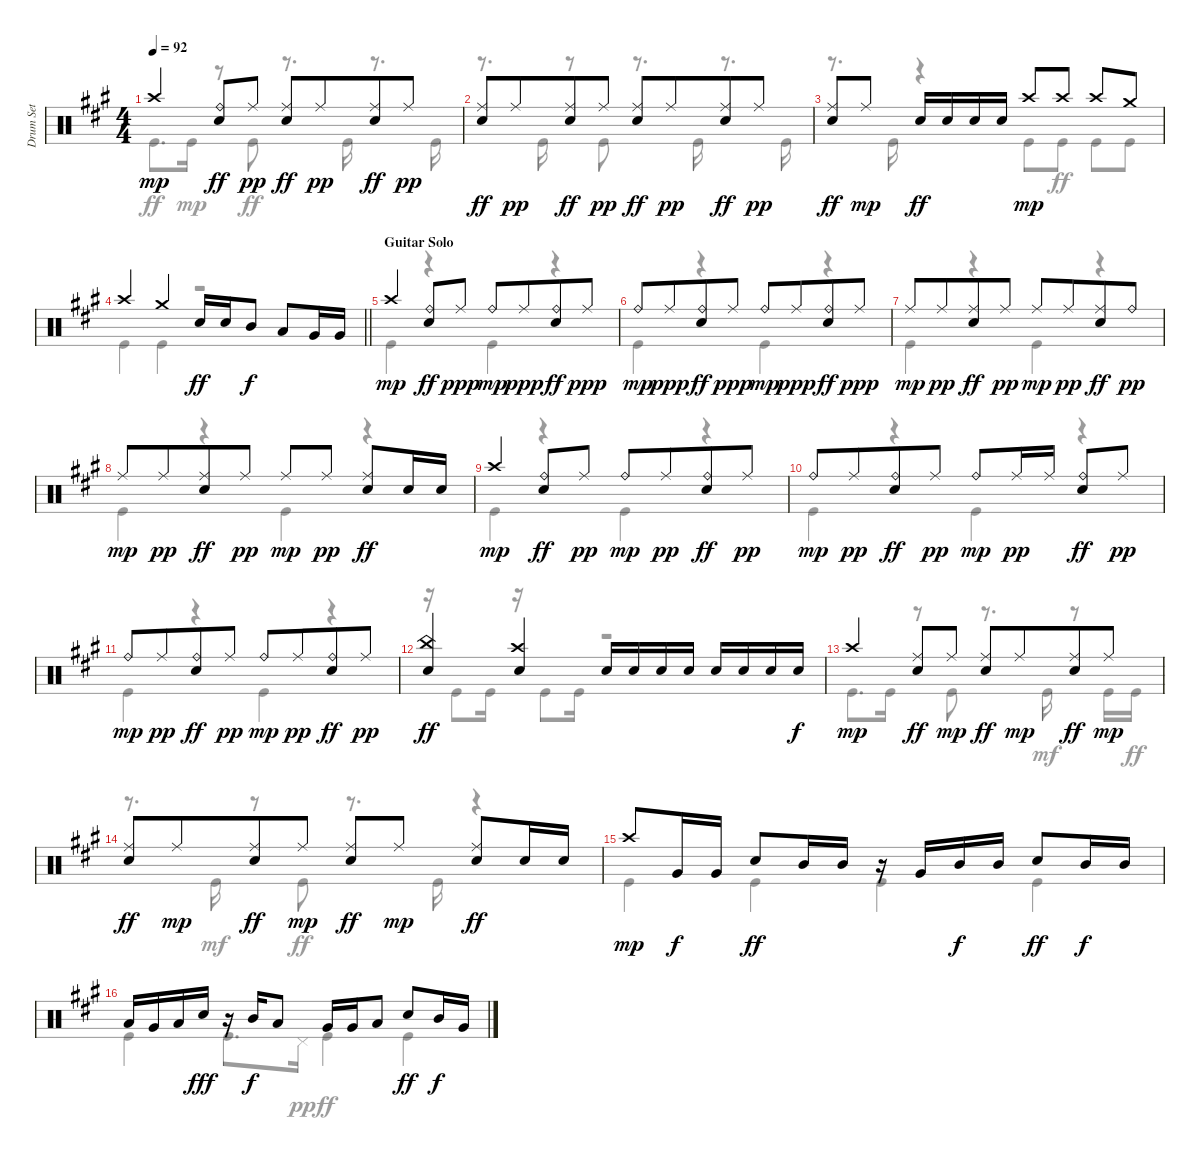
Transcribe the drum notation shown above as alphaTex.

\track ("Drum Set" "Drum Set") {instrument percussion}
\staff {score}
\articulation defaults
\voice
\ts (4 4)
\tempo 92
\clef neutral
\ks f#minor "Crash high (hit)".4{dy mp}
("Ride (bell)" "Electric Snare (hit)").8{dy ff} "Ride (middle)".8{dy pp} ("Ride (middle)" "Electric Snare (hit)").8{dy ff} "Ride (middle)".8{dy pp beam merge} ("Ride (middle)" "Electric Snare (hit)").8{dy ff} "Ride (middle)".8{dy pp} |
("Ride (middle)" "Electric Snare (hit)").8{dy ff} "Ride (middle)".8{dy pp beam merge} ("Ride (middle)" "Electric Snare (hit)").8{dy ff} "Ride (middle)".8{dy pp} ("Ride (middle)" "Electric Snare (hit)").8{dy ff} "Ride (middle)".8{dy pp beam merge} ("Ride (middle)" "Electric Snare (hit)").8{dy ff} "Ride (middle)".8{dy pp} |
("Ride (middle)" "Electric Snare (hit)").8{dy ff} "Ride (middle)".8{dy mp} "Electric Snare (hit)".16{dy ff} "Electric Snare (hit)".16 "Electric Snare (hit)".16 "Electric Snare (hit)".16 "Crash high (hit)".8{dy mp} "Crash high (hit)".8{beam split} "Crash high (hit)".8 "Crash medium (hit)".8 |
\barLineRight lightlight "Crash high (hit)".4 "Crash medium (hit)".4 "Electric Snare (hit)".16{dy ff} "Electric Snare (hit)".16 "Mid Tom (hit)".8{dy f} "Low Tom (hit)".8 "Very Low Tom (hit)".16 "Very Low Tom (hit)".16
|
\section ("" "Guitar Solo")
"Crash high (hit)".4{dy mp} ("Ride (bell)" "Electric Snare (hit)").8{dy ff} "Ride (middle)".8{dy ppp} "Ride (bell)".8{dy mp} "Ride (middle)".8{dy ppp beam merge} ("Ride (bell)" "Electric Snare (hit)").8{dy ff} "Ride (middle)".8{dy ppp} |
"Ride (bell)".8{dy mp} "Ride (middle)".8{dy ppp beam merge} ("Ride (bell)" "Electric Snare (hit)").8{dy ff} "Ride (middle)".8{dy ppp} "Ride (bell)".8{dy mp} "Ride (middle)".8{dy ppp beam merge} ("Ride (bell)" "Electric Snare (hit)").8{dy ff} "Ride (middle)".8{dy ppp} |
"Ride (middle)".8{dy mp} "Ride (middle)".8{dy pp beam merge} ("Ride (middle)" "Electric Snare (hit)").8{dy ff} "Ride (middle)".8{dy pp} "Ride (middle)".8{dy mp} "Ride (middle)".8{dy pp beam merge} ("Ride (middle)" "Electric Snare (hit)").8{dy ff} "Ride (bell)".8{dy pp} |
"Ride (middle)".8{dy mp} "Ride (middle)".8{dy pp beam merge} ("Ride (middle)" "Electric Snare (hit)").8{dy ff} "Ride (middle)".8{dy pp} "Ride (middle)".8{dy mp} "Ride (middle)".8{dy pp beam split} ("Ride (middle)" "Electric Snare (hit)").8{dy ff} "Electric Snare (hit)".16 "Electric Snare (hit)".16 |
"Crash high (hit)".4{dy mp} ("Ride (bell)" "Electric Snare (hit)").8{dy ff} "Ride (middle)".8{dy pp} "Ride (bell)".8{dy mp} "Ride (middle)".8{dy pp beam merge} ("Ride (bell)" "Electric Snare (hit)").8{dy ff} "Ride (middle)".8{dy pp} |
"Ride (bell)".8{dy mp} "Ride (middle)".8{dy pp beam merge} ("Ride (bell)" "Electric Snare (hit)").8{dy ff} "Ride (middle)".8{dy pp} "Ride (bell)".8{dy mp} "Ride (middle)".16{dy pp} "Ride (middle)".16{beam split} ("Ride (bell)" "Electric Snare (hit)").8{dy ff} "Ride (middle)".8{dy pp} |
"Ride (bell)".8{dy mp} "Ride (middle)".8{dy pp beam merge} ("Ride (bell)" "Electric Snare (hit)").8{dy ff} "Ride (middle)".8{dy pp} "Ride (bell)".8{dy mp} "Ride (middle)".8{dy pp beam merge} ("Ride (bell)" "Electric Snare (hit)").8{dy ff} "Ride (middle)".8{dy pp} |
("China (hit)" "Electric Snare (hit)").4{dy ff} ("Crash high (hit)" "Electric Snare (hit)").4 "Electric Snare (hit)".16 "Electric Snare (hit)".16 "Electric Snare (hit)".16 "Electric Snare (hit)".16 "Electric Snare (hit)".16 "Electric Snare (hit)".16 "Electric Snare (hit)".16 "Electric Snare (hit)".16{dy f} |
"Crash high (hit)".4{dy mp} ("Ride (middle)" "Electric Snare (hit)").8{dy ff} "Ride (middle)".8{dy mp} ("Ride (middle)" "Electric Snare (hit)").8{dy ff} "Ride (middle)".8{dy mp beam merge} ("Ride (middle)" "Electric Snare (hit)").8{dy ff} "Ride (middle)".8{dy mp} |
("Ride (middle)" "Electric Snare (hit)").8{dy ff} "Ride (middle)".8{dy mp beam merge} ("Ride (middle)" "Electric Snare (hit)").8{dy ff} "Ride (middle)".8{dy mp} ("Ride (middle)" "Electric Snare (hit)").8{dy ff} "Ride (middle)".8{dy mp} ("Ride (middle)" "Electric Snare (hit)").8{dy ff} "Electric Snare (hit)".16 "Electric Snare (hit)".16 |
"Crash high (hit)".8{dy mp} "Very Low Tom (hit)".16{dy f} "Very Low Tom (hit)".16 "Electric Snare (hit)".8{dy ff} "Mid Tom (hit)".16 "Mid Tom (hit)".16 r.16 "Very Low Tom (hit)".16 "Mid Tom (hit)".16{dy f} "Mid Tom (hit)".16 "Electric Snare (hit)".8{dy ff} "Mid Tom (hit)".16{dy f} "Mid Tom (hit)".16 |
"Low Tom (hit)".16 "Very Low Tom (hit)".16 "Low Tom (hit)".16 "Electric Snare (hit)".16{dy fff} r.16 "Mid Tom (hit)".16{dy f} "Low Tom (hit)".8 "Very Low Tom (hit)".16 "Very Low Tom (hit)".16 "Low Tom (hit)".8 "Electric Snare (hit)".8{dy ff} "Mid Tom (hit)".16{dy f} "Very Low Tom (hit)".16
\voice
\clef neutral
\ottava regular
\simile none
\ks f#minor "Kick (hit)".8{d dy ff} "Kick (hit)".16{dy mp}
r.8 "Kick (hit)".8{dy ff} r.8{d} "Kick (hit)".16 r.8{d} "Kick (hit)".16 |
r.8{d} "Kick (hit)".16 r.8 "Kick (hit)".8 r.8{d} "Kick (hit)".16 r.8{d} "Kick (hit)".16 |
r.8{d} "Kick (hit)".16 r.4 "Kick (hit)".8{dy mp} "Kick (hit)".8{dy ff} "Kick (hit)".8 "Kick (hit)".8 |
\barLineRight lightlight "Kick (hit)".4 "Kick (hit)".4
r.2 |
"Kick (hit)".4 r.4 "Kick (hit)".4 r.4 |
"Kick (hit)".4 r.4 "Kick (hit)".4 r.4 |
"Kick (hit)".4 r.4 "Kick (hit)".4 r.4 |
"Kick (hit)".4 r.4 "Kick (hit)".4 r.4 |
"Kick (hit)".4 r.4 "Kick (hit)".4 r.4 |
"Kick (hit)".4 r.4 "Kick (hit)".4 r.4 |
"Kick (hit)".4 r.4 "Kick (hit)".4 r.4 |
r.16 "Kick (hit)".8 "Kick (hit)".16 r.16 "Kick (hit)".8 "Kick (hit)".16 r.2 |
"Kick (hit)".8{d} "Kick (hit)".16 r.8 "Kick (hit)".8 r.8{d} "Kick (hit)".16{dy mf} r.8 "Kick (hit)".16 "Kick (hit)".16{dy ff} |
r.8{d} "Kick (hit)".16{dy mf} r.8 "Kick (hit)".8{dy ff} r.8{d} "Kick (hit)".16 r.4 |
"Kick (hit)".4 "Kick (hit)".4 "Kick (hit)".4 "Kick (hit)".4 |
"Kick (hit)".4 "Kick (hit)".8{d} "Pedal Hi-Hat (hit)".16{dy pp} "Kick (hit)".4{dy ff} "Kick (hit)".4
